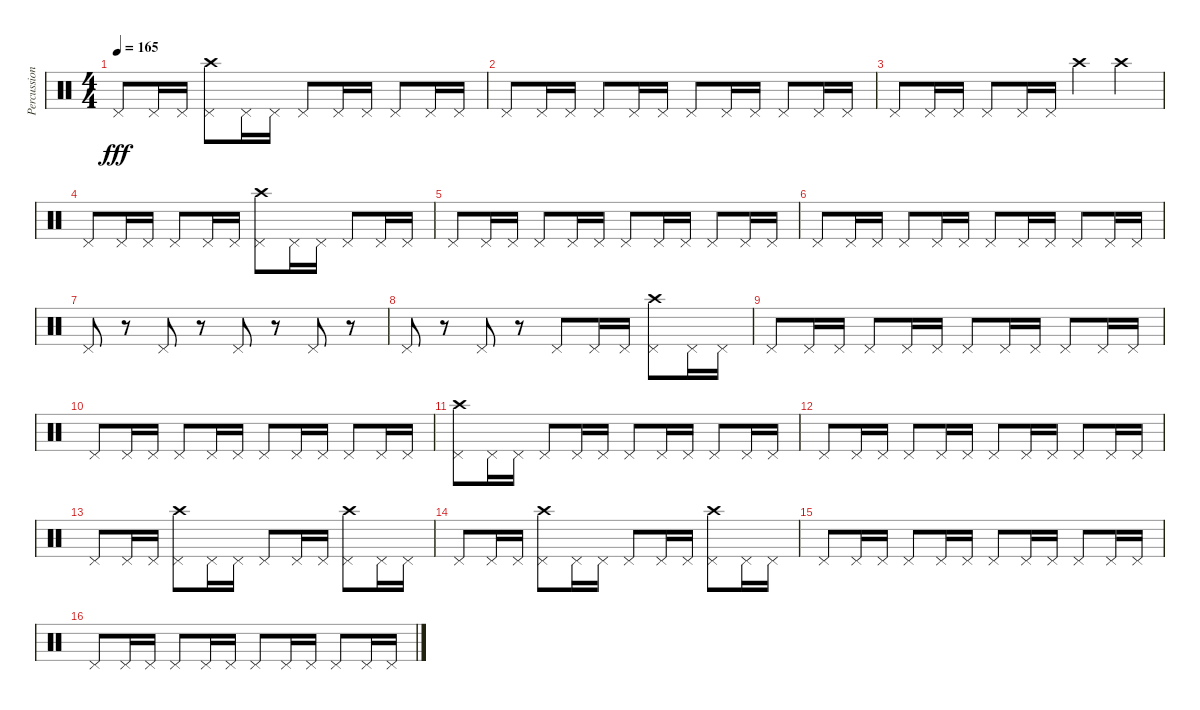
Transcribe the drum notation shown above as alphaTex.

\track ("Percussion" "Percussion") {instrument percussion}
\staff {score}
\articulation defaults
\ts (4 4)
\tempo 165
\clef neutral
\ks c "Pedal Hi-Hat (hit)".8{dy fff} "Pedal Hi-Hat (hit)".16 "Pedal Hi-Hat (hit)".16
("Crash high (hit)" "Pedal Hi-Hat (hit)").8 "Pedal Hi-Hat (hit)".16 "Pedal Hi-Hat (hit)".16 "Pedal Hi-Hat (hit)".8 "Pedal Hi-Hat (hit)".16 "Pedal Hi-Hat (hit)".16 "Pedal Hi-Hat (hit)".8 "Pedal Hi-Hat (hit)".16 "Pedal Hi-Hat (hit)".16 |
"Pedal Hi-Hat (hit)".8 "Pedal Hi-Hat (hit)".16 "Pedal Hi-Hat (hit)".16 "Pedal Hi-Hat (hit)".8 "Pedal Hi-Hat (hit)".16 "Pedal Hi-Hat (hit)".16 "Pedal Hi-Hat (hit)".8 "Pedal Hi-Hat (hit)".16 "Pedal Hi-Hat (hit)".16 "Pedal Hi-Hat (hit)".8 "Pedal Hi-Hat (hit)".16 "Pedal Hi-Hat (hit)".16 |
"Pedal Hi-Hat (hit)".8 "Pedal Hi-Hat (hit)".16 "Pedal Hi-Hat (hit)".16 "Pedal Hi-Hat (hit)".8 "Pedal Hi-Hat (hit)".16 "Pedal Hi-Hat (hit)".16 "Crash high (hit)".4 "Crash high (hit)".4 |
"Pedal Hi-Hat (hit)".8 "Pedal Hi-Hat (hit)".16 "Pedal Hi-Hat (hit)".16 "Pedal Hi-Hat (hit)".8 "Pedal Hi-Hat (hit)".16 "Pedal Hi-Hat (hit)".16 ("Crash high (hit)" "Pedal Hi-Hat (hit)").8 "Pedal Hi-Hat (hit)".16 "Pedal Hi-Hat (hit)".16 "Pedal Hi-Hat (hit)".8 "Pedal Hi-Hat (hit)".16 "Pedal Hi-Hat (hit)".16 |
"Pedal Hi-Hat (hit)".8 "Pedal Hi-Hat (hit)".16 "Pedal Hi-Hat (hit)".16 "Pedal Hi-Hat (hit)".8 "Pedal Hi-Hat (hit)".16 "Pedal Hi-Hat (hit)".16 "Pedal Hi-Hat (hit)".8 "Pedal Hi-Hat (hit)".16 "Pedal Hi-Hat (hit)".16 "Pedal Hi-Hat (hit)".8 "Pedal Hi-Hat (hit)".16 "Pedal Hi-Hat (hit)".16 |
"Pedal Hi-Hat (hit)".8 "Pedal Hi-Hat (hit)".16 "Pedal Hi-Hat (hit)".16 "Pedal Hi-Hat (hit)".8 "Pedal Hi-Hat (hit)".16 "Pedal Hi-Hat (hit)".16 "Pedal Hi-Hat (hit)".8 "Pedal Hi-Hat (hit)".16 "Pedal Hi-Hat (hit)".16 "Pedal Hi-Hat (hit)".8 "Pedal Hi-Hat (hit)".16 "Pedal Hi-Hat (hit)".16 |
"Pedal Hi-Hat (hit)".8 r.8 "Pedal Hi-Hat (hit)".8 r.8 "Pedal Hi-Hat (hit)".8 r.8 "Pedal Hi-Hat (hit)".8 r.8 |
"Pedal Hi-Hat (hit)".8 r.8 "Pedal Hi-Hat (hit)".8 r.8 "Pedal Hi-Hat (hit)".8 "Pedal Hi-Hat (hit)".16 "Pedal Hi-Hat (hit)".16 ("Crash high (hit)" "Pedal Hi-Hat (hit)").8 "Pedal Hi-Hat (hit)".16 "Pedal Hi-Hat (hit)".16 |
"Pedal Hi-Hat (hit)".8 "Pedal Hi-Hat (hit)".16 "Pedal Hi-Hat (hit)".16 "Pedal Hi-Hat (hit)".8 "Pedal Hi-Hat (hit)".16 "Pedal Hi-Hat (hit)".16 "Pedal Hi-Hat (hit)".8 "Pedal Hi-Hat (hit)".16 "Pedal Hi-Hat (hit)".16 "Pedal Hi-Hat (hit)".8 "Pedal Hi-Hat (hit)".16 "Pedal Hi-Hat (hit)".16 |
"Pedal Hi-Hat (hit)".8 "Pedal Hi-Hat (hit)".16 "Pedal Hi-Hat (hit)".16 "Pedal Hi-Hat (hit)".8 "Pedal Hi-Hat (hit)".16 "Pedal Hi-Hat (hit)".16 "Pedal Hi-Hat (hit)".8 "Pedal Hi-Hat (hit)".16 "Pedal Hi-Hat (hit)".16 "Pedal Hi-Hat (hit)".8 "Pedal Hi-Hat (hit)".16 "Pedal Hi-Hat (hit)".16 |
("Crash high (hit)" "Pedal Hi-Hat (hit)").8 "Pedal Hi-Hat (hit)".16 "Pedal Hi-Hat (hit)".16 "Pedal Hi-Hat (hit)".8 "Pedal Hi-Hat (hit)".16 "Pedal Hi-Hat (hit)".16 "Pedal Hi-Hat (hit)".8 "Pedal Hi-Hat (hit)".16 "Pedal Hi-Hat (hit)".16 "Pedal Hi-Hat (hit)".8 "Pedal Hi-Hat (hit)".16 "Pedal Hi-Hat (hit)".16 |
"Pedal Hi-Hat (hit)".8 "Pedal Hi-Hat (hit)".16 "Pedal Hi-Hat (hit)".16 "Pedal Hi-Hat (hit)".8 "Pedal Hi-Hat (hit)".16 "Pedal Hi-Hat (hit)".16 "Pedal Hi-Hat (hit)".8 "Pedal Hi-Hat (hit)".16 "Pedal Hi-Hat (hit)".16 "Pedal Hi-Hat (hit)".8 "Pedal Hi-Hat (hit)".16 "Pedal Hi-Hat (hit)".16 |
"Pedal Hi-Hat (hit)".8 "Pedal Hi-Hat (hit)".16 "Pedal Hi-Hat (hit)".16 ("Crash high (hit)" "Pedal Hi-Hat (hit)").8 "Pedal Hi-Hat (hit)".16 "Pedal Hi-Hat (hit)".16 "Pedal Hi-Hat (hit)".8 "Pedal Hi-Hat (hit)".16 "Pedal Hi-Hat (hit)".16 ("Crash high (hit)" "Pedal Hi-Hat (hit)").8 "Pedal Hi-Hat (hit)".16 "Pedal Hi-Hat (hit)".16 |
"Pedal Hi-Hat (hit)".8 "Pedal Hi-Hat (hit)".16 "Pedal Hi-Hat (hit)".16 ("Crash high (hit)" "Pedal Hi-Hat (hit)").8 "Pedal Hi-Hat (hit)".16 "Pedal Hi-Hat (hit)".16 "Pedal Hi-Hat (hit)".8 "Pedal Hi-Hat (hit)".16 "Pedal Hi-Hat (hit)".16 ("Crash high (hit)" "Pedal Hi-Hat (hit)").8 "Pedal Hi-Hat (hit)".16 "Pedal Hi-Hat (hit)".16 |
"Pedal Hi-Hat (hit)".8 "Pedal Hi-Hat (hit)".16 "Pedal Hi-Hat (hit)".16 "Pedal Hi-Hat (hit)".8 "Pedal Hi-Hat (hit)".16 "Pedal Hi-Hat (hit)".16 "Pedal Hi-Hat (hit)".8 "Pedal Hi-Hat (hit)".16 "Pedal Hi-Hat (hit)".16 "Pedal Hi-Hat (hit)".8 "Pedal Hi-Hat (hit)".16 "Pedal Hi-Hat (hit)".16 |
"Pedal Hi-Hat (hit)".8 "Pedal Hi-Hat (hit)".16 "Pedal Hi-Hat (hit)".16 "Pedal Hi-Hat (hit)".8 "Pedal Hi-Hat (hit)".16 "Pedal Hi-Hat (hit)".16 "Pedal Hi-Hat (hit)".8 "Pedal Hi-Hat (hit)".16 "Pedal Hi-Hat (hit)".16 "Pedal Hi-Hat (hit)".8 "Pedal Hi-Hat (hit)".16 "Pedal Hi-Hat (hit)".16
